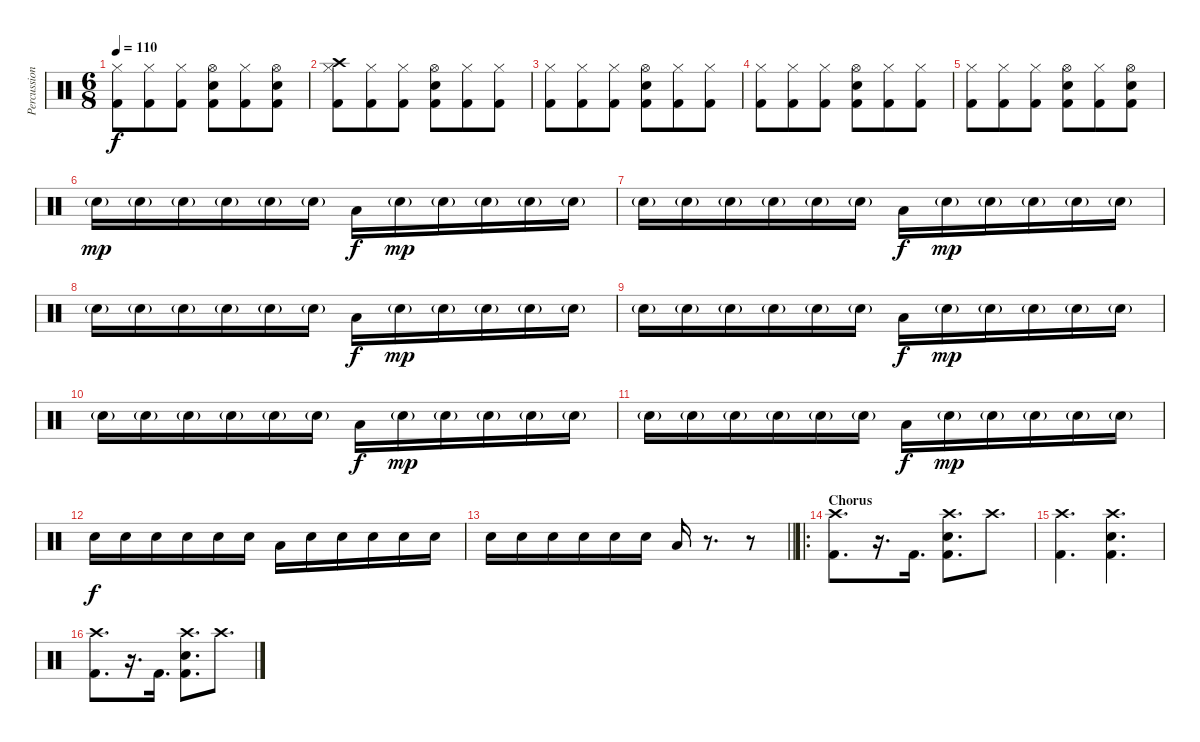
\track ("Percussion" "Percussion") {instrument percussion}
\staff {score}
\articulation defaults
\ts (6 8)
\tempo 110
\clef neutral
\ks c
("Hi-Hat (closed)" "Kick (hit) 2").8{dy f} ("Hi-Hat (closed)" "Kick (hit) 2").8 ("Hi-Hat (closed)" "Kick (hit) 2").8 ("Hi-Hat (open)" "Electric Snare (hit)" "Kick (hit) 2").8 ("Hi-Hat (closed)" "Kick (hit) 2").8 ("Hi-Hat (open)" "Electric Snare (hit)" "Kick (hit) 2").8 |
("Crash high (hit)" "Hi-Hat (closed)" "Kick (hit) 2").8 ("Hi-Hat (closed)" "Kick (hit) 2").8 ("Hi-Hat (closed)" "Kick (hit) 2").8 ("Hi-Hat (open)" "Electric Snare (hit)" "Kick (hit) 2").8 ("Hi-Hat (closed)" "Kick (hit) 2").8 ("Hi-Hat (closed)" "Kick (hit) 2").8 |
("Hi-Hat (closed)" "Kick (hit) 2").8 ("Hi-Hat (closed)" "Kick (hit) 2").8 ("Hi-Hat (closed)" "Kick (hit) 2").8 ("Hi-Hat (open)" "Electric Snare (hit)" "Kick (hit) 2").8 ("Hi-Hat (closed)" "Kick (hit) 2").8 ("Hi-Hat (closed)" "Kick (hit) 2").8 |
("Hi-Hat (closed)" "Kick (hit) 2").8 ("Hi-Hat (closed)" "Kick (hit) 2").8 ("Hi-Hat (closed)" "Kick (hit) 2").8 ("Hi-Hat (open)" "Electric Snare (hit)" "Kick (hit) 2").8 ("Hi-Hat (closed)" "Kick (hit) 2").8 ("Hi-Hat (closed)" "Kick (hit) 2").8 |
("Hi-Hat (closed)" "Kick (hit) 2").8 ("Hi-Hat (closed)" "Kick (hit) 2").8 ("Hi-Hat (closed)" "Kick (hit) 2").8 ("Hi-Hat (open)" "Electric Snare (hit)" "Kick (hit) 2").8 ("Hi-Hat (closed)" "Kick (hit) 2").8 ("Hi-Hat (open)" "Electric Snare (hit)" "Kick (hit) 2").8 |
"Electric Snare (hit)"{g}.16{dy mp} "Electric Snare (hit)"{g}.16 "Electric Snare (hit)"{g}.16 "Electric Snare (hit)"{g}.16 "Electric Snare (hit)"{g}.16 "Electric Snare (hit)"{g}.16 "Low Floor Tom (hit)".16{dy f} "Electric Snare (hit)"{g}.16{dy mp} "Electric Snare (hit)"{g}.16 "Electric Snare (hit)"{g}.16 "Electric Snare (hit)"{g}.16 "Electric Snare (hit)"{g}.16 |
"Electric Snare (hit)"{g}.16 "Electric Snare (hit)"{g}.16 "Electric Snare (hit)"{g}.16 "Electric Snare (hit)"{g}.16 "Electric Snare (hit)"{g}.16 "Electric Snare (hit)"{g}.16 "Low Floor Tom (hit)".16{dy f} "Electric Snare (hit)"{g}.16{dy mp} "Electric Snare (hit)"{g}.16 "Electric Snare (hit)"{g}.16 "Electric Snare (hit)"{g}.16 "Electric Snare (hit)"{g}.16 |
"Electric Snare (hit)"{g}.16 "Electric Snare (hit)"{g}.16 "Electric Snare (hit)"{g}.16 "Electric Snare (hit)"{g}.16 "Electric Snare (hit)"{g}.16 "Electric Snare (hit)"{g}.16 "Low Floor Tom (hit)".16{dy f} "Electric Snare (hit)"{g}.16{dy mp} "Electric Snare (hit)"{g}.16 "Electric Snare (hit)"{g}.16 "Electric Snare (hit)"{g}.16 "Electric Snare (hit)"{g}.16 |
"Electric Snare (hit)"{g}.16 "Electric Snare (hit)"{g}.16 "Electric Snare (hit)"{g}.16 "Electric Snare (hit)"{g}.16 "Electric Snare (hit)"{g}.16 "Electric Snare (hit)"{g}.16 "Low Floor Tom (hit)".16{dy f} "Electric Snare (hit)"{g}.16{dy mp} "Electric Snare (hit)"{g}.16 "Electric Snare (hit)"{g}.16 "Electric Snare (hit)"{g}.16 "Electric Snare (hit)"{g}.16 |
"Electric Snare (hit)"{g}.16 "Electric Snare (hit)"{g}.16 "Electric Snare (hit)"{g}.16 "Electric Snare (hit)"{g}.16 "Electric Snare (hit)"{g}.16 "Electric Snare (hit)"{g}.16 "Low Floor Tom (hit)".16{dy f} "Electric Snare (hit)"{g}.16{dy mp} "Electric Snare (hit)"{g}.16 "Electric Snare (hit)"{g}.16 "Electric Snare (hit)"{g}.16 "Electric Snare (hit)"{g}.16 |
"Electric Snare (hit)"{g}.16 "Electric Snare (hit)"{g}.16 "Electric Snare (hit)"{g}.16 "Electric Snare (hit)"{g}.16 "Electric Snare (hit)"{g}.16 "Electric Snare (hit)"{g}.16 "Low Floor Tom (hit)".16{dy f} "Electric Snare (hit)"{g}.16{dy mp} "Electric Snare (hit)"{g}.16 "Electric Snare (hit)"{g}.16 "Electric Snare (hit)"{g}.16 "Electric Snare (hit)"{g}.16 |
"Electric Snare (hit)".16{dy f} "Electric Snare (hit)".16 "Electric Snare (hit)".16 "Electric Snare (hit)".16 "Electric Snare (hit)".16 "Electric Snare (hit)".16 "Low Floor Tom (hit)".16 "Electric Snare (hit)".16 "Electric Snare (hit)".16 "Electric Snare (hit)".16 "Electric Snare (hit)".16 "Electric Snare (hit)".16 |
\barLineRight lightlight "Electric Snare (hit)".16 "Electric Snare (hit)".16 "Electric Snare (hit)".16 "Electric Snare (hit)".16 "Electric Snare (hit)".16 "Electric Snare (hit)".16 "Low Floor Tom (hit)".16
r.8{d} r.8 |
\ro
\section ("" "Chorus")
("Crash high (hit)" "Kick (hit) 2").8{d} r.16{d} "Kick (hit) 2".16{d} ("Crash high (hit)" "Electric Snare (hit)" "Kick (hit) 2").8{d} "Crash high (hit)".8{d} |
("Crash high (hit)" "Kick (hit) 2").4{d} ("Crash high (hit)" "Electric Snare (hit)" "Kick (hit) 2").4{d} |
("Crash high (hit)" "Kick (hit) 2").8{d} r.16{d} "Kick (hit) 2".16{d} ("Crash high (hit)" "Electric Snare (hit)" "Kick (hit) 2").8{d} "Crash high (hit)".8{d}
